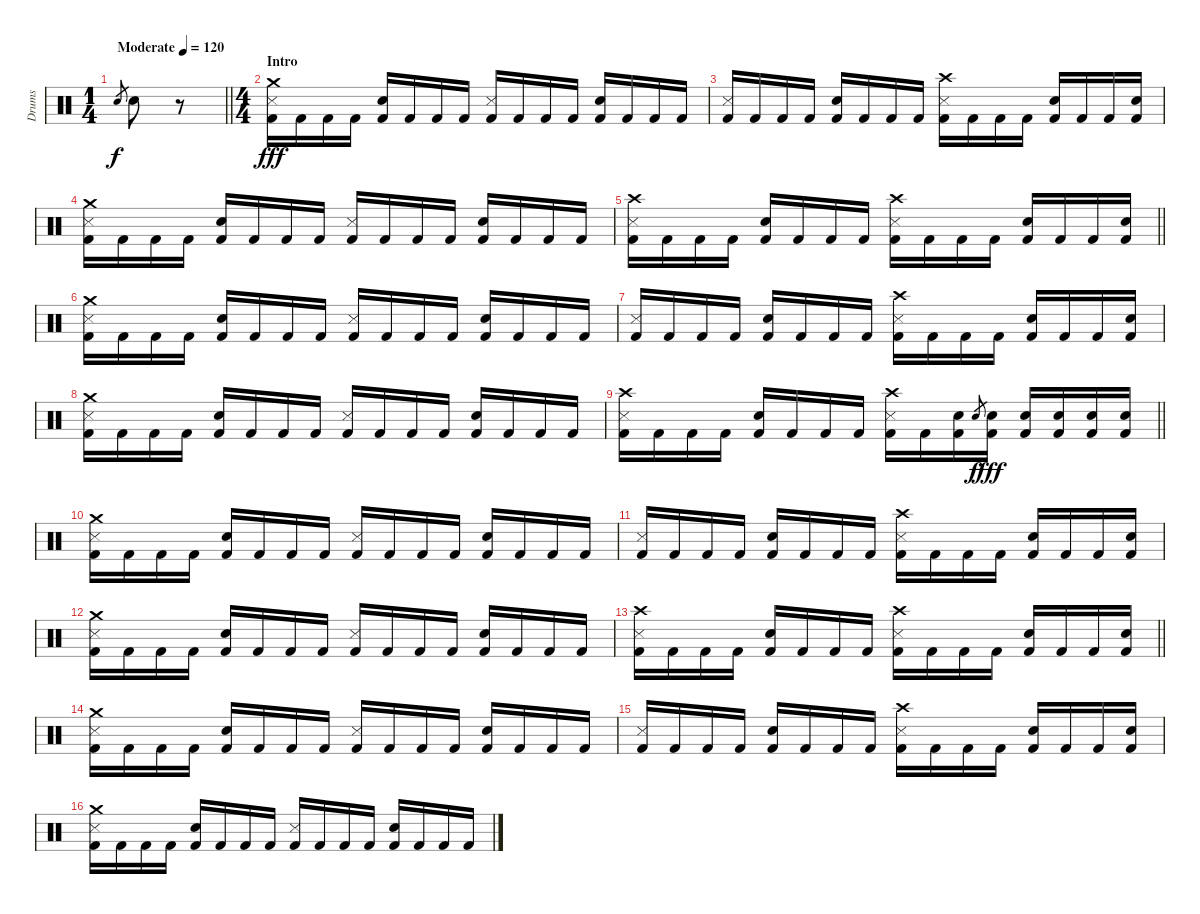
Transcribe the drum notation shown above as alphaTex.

\track ("Drums" "Drums") {instrument percussion}
\staff {score}
\articulation defaults
\ts (1 4)
\tempo (120 "Moderate")
\clef neutral
\barLineRight lightlight
\ks c "Electric Snare (hit)".8{gr dy f} "Electric Snare (hit)".8
r.8 |
\ts (4 4)
\section ("" "Intro")
("Crash medium (hit)" "Snare (side stick) 3" "Kick (hit) 2").16{dy fff} "Kick (hit) 2".16 "Kick (hit) 2".16 "Kick (hit) 2".16 ("Electric Snare (hit)" "Kick (hit) 2").16 "Kick (hit) 2".16 "Kick (hit) 2".16 "Kick (hit) 2".16 ("Snare (side stick) 3" "Kick (hit) 2").16 "Kick (hit) 2".16 "Kick (hit) 2".16 "Kick (hit) 2".16 ("Electric Snare (hit)" "Kick (hit) 2").16 "Kick (hit) 2".16 "Kick (hit) 2".16 "Kick (hit) 2".16 |
("Snare (side stick) 3" "Kick (hit) 2").16 "Kick (hit) 2".16 "Kick (hit) 2".16 "Kick (hit) 2".16 ("Electric Snare (hit)" "Kick (hit) 2").16 "Kick (hit) 2".16 "Kick (hit) 2".16 "Kick (hit) 2".16 ("Crash high (hit)" "Snare (side stick) 3" "Kick (hit) 2").16 "Kick (hit) 2".16 "Kick (hit) 2".16 "Kick (hit) 2".16 ("Electric Snare (hit)" "Kick (hit) 2").16 "Kick (hit) 2".16 "Kick (hit) 2".16 ("Electric Snare (hit)" "Kick (hit) 2").16 |
("Crash medium (hit)" "Snare (side stick) 3" "Kick (hit) 2").16 "Kick (hit) 2".16 "Kick (hit) 2".16 "Kick (hit) 2".16 ("Electric Snare (hit)" "Kick (hit) 2").16 "Kick (hit) 2".16 "Kick (hit) 2".16 "Kick (hit) 2".16 ("Snare (side stick) 3" "Kick (hit) 2").16 "Kick (hit) 2".16 "Kick (hit) 2".16 "Kick (hit) 2".16 ("Electric Snare (hit)" "Kick (hit) 2").16 "Kick (hit) 2".16 "Kick (hit) 2".16 "Kick (hit) 2".16 |
\barLineRight lightlight
("Crash high (hit)" "Snare (side stick) 3" "Kick (hit) 2").16 "Kick (hit) 2".16 "Kick (hit) 2".16 "Kick (hit) 2".16 ("Electric Snare (hit)" "Kick (hit) 2").16 "Kick (hit) 2".16 "Kick (hit) 2".16 "Kick (hit) 2".16 ("Crash high (hit)" "Snare (side stick) 3" "Kick (hit) 2").16 "Kick (hit) 2".16 "Kick (hit) 2".16 "Kick (hit) 2".16 ("Electric Snare (hit)" "Kick (hit) 2").16 "Kick (hit) 2".16 "Kick (hit) 2".16 ("Electric Snare (hit)" "Kick (hit) 2").16 |
("Crash medium (hit)" "Snare (side stick) 3" "Kick (hit) 2").16 "Kick (hit) 2".16 "Kick (hit) 2".16 "Kick (hit) 2".16 ("Electric Snare (hit)" "Kick (hit) 2").16 "Kick (hit) 2".16 "Kick (hit) 2".16 "Kick (hit) 2".16 ("Snare (side stick) 3" "Kick (hit) 2").16 "Kick (hit) 2".16 "Kick (hit) 2".16 "Kick (hit) 2".16 ("Electric Snare (hit)" "Kick (hit) 2").16 "Kick (hit) 2".16 "Kick (hit) 2".16 "Kick (hit) 2".16 |
("Snare (side stick) 3" "Kick (hit) 2").16 "Kick (hit) 2".16 "Kick (hit) 2".16 "Kick (hit) 2".16 ("Electric Snare (hit)" "Kick (hit) 2").16 "Kick (hit) 2".16 "Kick (hit) 2".16 "Kick (hit) 2".16 ("Crash high (hit)" "Snare (side stick) 3" "Kick (hit) 2").16 "Kick (hit) 2".16 "Kick (hit) 2".16 "Kick (hit) 2".16 ("Electric Snare (hit)" "Kick (hit) 2").16 "Kick (hit) 2".16 "Kick (hit) 2".16 ("Electric Snare (hit)" "Kick (hit) 2").16 |
("Crash medium (hit)" "Snare (side stick) 3" "Kick (hit) 2").16 "Kick (hit) 2".16 "Kick (hit) 2".16 "Kick (hit) 2".16 ("Electric Snare (hit)" "Kick (hit) 2").16 "Kick (hit) 2".16 "Kick (hit) 2".16 "Kick (hit) 2".16 ("Snare (side stick) 3" "Kick (hit) 2").16 "Kick (hit) 2".16 "Kick (hit) 2".16 "Kick (hit) 2".16 ("Electric Snare (hit)" "Kick (hit) 2").16 "Kick (hit) 2".16 "Kick (hit) 2".16 "Kick (hit) 2".16 |
\barLineRight lightlight
("Crash high (hit)" "Snare (side stick) 3" "Kick (hit) 2").16 "Kick (hit) 2".16 "Kick (hit) 2".16 "Kick (hit) 2".16 ("Electric Snare (hit)" "Kick (hit) 2").16 "Kick (hit) 2".16 "Kick (hit) 2".16 "Kick (hit) 2".16 ("Crash high (hit)" "Snare (side stick) 3" "Kick (hit) 2").16 "Kick (hit) 2".16 ("Electric Snare (hit)" "Kick (hit) 2").16 "Electric Snare (hit)".8{gr dy f} ("Electric Snare (hit)" "Kick (hit) 2").16{dy fff} ("Electric Snare (hit)" "Kick (hit) 2").16 ("Electric Snare (hit)" "Kick (hit) 2").16 ("Electric Snare (hit)" "Kick (hit) 2").16 ("Electric Snare (hit)" "Kick (hit) 2").16 |
("Crash medium (hit)" "Snare (side stick) 3" "Kick (hit) 2").16 "Kick (hit) 2".16 "Kick (hit) 2".16 "Kick (hit) 2".16 ("Electric Snare (hit)" "Kick (hit) 2").16 "Kick (hit) 2".16 "Kick (hit) 2".16 "Kick (hit) 2".16 ("Snare (side stick) 3" "Kick (hit) 2").16 "Kick (hit) 2".16 "Kick (hit) 2".16 "Kick (hit) 2".16 ("Electric Snare (hit)" "Kick (hit) 2").16 "Kick (hit) 2".16 "Kick (hit) 2".16 "Kick (hit) 2".16 |
("Snare (side stick) 3" "Kick (hit) 2").16 "Kick (hit) 2".16 "Kick (hit) 2".16 "Kick (hit) 2".16 ("Electric Snare (hit)" "Kick (hit) 2").16 "Kick (hit) 2".16 "Kick (hit) 2".16 "Kick (hit) 2".16 ("Crash high (hit)" "Snare (side stick) 3" "Kick (hit) 2").16 "Kick (hit) 2".16 "Kick (hit) 2".16 "Kick (hit) 2".16 ("Electric Snare (hit)" "Kick (hit) 2").16 "Kick (hit) 2".16 "Kick (hit) 2".16 ("Electric Snare (hit)" "Kick (hit) 2").16 |
("Crash medium (hit)" "Snare (side stick) 3" "Kick (hit) 2").16 "Kick (hit) 2".16 "Kick (hit) 2".16 "Kick (hit) 2".16 ("Electric Snare (hit)" "Kick (hit) 2").16 "Kick (hit) 2".16 "Kick (hit) 2".16 "Kick (hit) 2".16 ("Snare (side stick) 3" "Kick (hit) 2").16 "Kick (hit) 2".16 "Kick (hit) 2".16 "Kick (hit) 2".16 ("Electric Snare (hit)" "Kick (hit) 2").16 "Kick (hit) 2".16 "Kick (hit) 2".16 "Kick (hit) 2".16 |
\barLineRight lightlight
("Crash high (hit)" "Snare (side stick) 3" "Kick (hit) 2").16 "Kick (hit) 2".16 "Kick (hit) 2".16 "Kick (hit) 2".16 ("Electric Snare (hit)" "Kick (hit) 2").16 "Kick (hit) 2".16 "Kick (hit) 2".16 "Kick (hit) 2".16 ("Crash high (hit)" "Snare (side stick) 3" "Kick (hit) 2").16 "Kick (hit) 2".16 "Kick (hit) 2".16 "Kick (hit) 2".16 ("Electric Snare (hit)" "Kick (hit) 2").16 "Kick (hit) 2".16 "Kick (hit) 2".16 ("Electric Snare (hit)" "Kick (hit) 2").16 |
("Crash medium (hit)" "Snare (side stick) 3" "Kick (hit) 2").16 "Kick (hit) 2".16 "Kick (hit) 2".16 "Kick (hit) 2".16 ("Electric Snare (hit)" "Kick (hit) 2").16 "Kick (hit) 2".16 "Kick (hit) 2".16 "Kick (hit) 2".16 ("Snare (side stick) 3" "Kick (hit) 2").16 "Kick (hit) 2".16 "Kick (hit) 2".16 "Kick (hit) 2".16 ("Electric Snare (hit)" "Kick (hit) 2").16 "Kick (hit) 2".16 "Kick (hit) 2".16 "Kick (hit) 2".16 |
("Snare (side stick) 3" "Kick (hit) 2").16 "Kick (hit) 2".16 "Kick (hit) 2".16 "Kick (hit) 2".16 ("Electric Snare (hit)" "Kick (hit) 2").16 "Kick (hit) 2".16 "Kick (hit) 2".16 "Kick (hit) 2".16 ("Crash high (hit)" "Snare (side stick) 3" "Kick (hit) 2").16 "Kick (hit) 2".16 "Kick (hit) 2".16 "Kick (hit) 2".16 ("Electric Snare (hit)" "Kick (hit) 2").16 "Kick (hit) 2".16 "Kick (hit) 2".16 ("Electric Snare (hit)" "Kick (hit) 2").16 |
("Crash medium (hit)" "Snare (side stick) 3" "Kick (hit) 2").16 "Kick (hit) 2".16 "Kick (hit) 2".16 "Kick (hit) 2".16 ("Electric Snare (hit)" "Kick (hit) 2").16 "Kick (hit) 2".16 "Kick (hit) 2".16 "Kick (hit) 2".16 ("Snare (side stick) 3" "Kick (hit) 2").16 "Kick (hit) 2".16 "Kick (hit) 2".16 "Kick (hit) 2".16 ("Electric Snare (hit)" "Kick (hit) 2").16 "Kick (hit) 2".16 "Kick (hit) 2".16 "Kick (hit) 2".16
